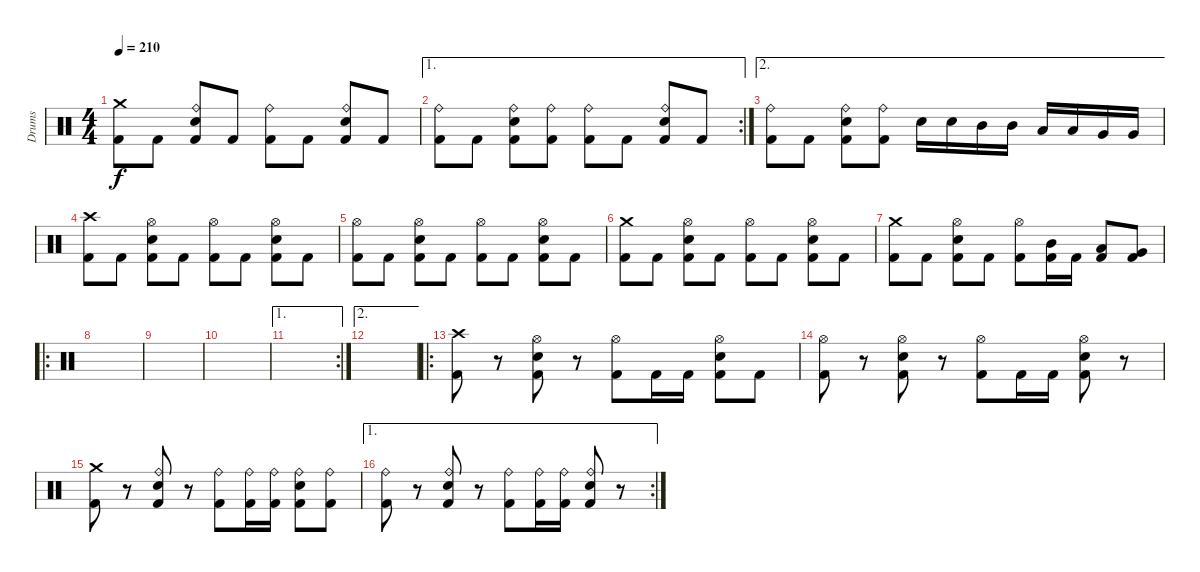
\track ("Drums" "Drums") {instrument percussion}
\staff {score}
\articulation defaults
\ts (4 4)
\tempo 210
\clef neutral
\ks c
("Crash medium (hit)" "Kick (hit) 2").8{dy f} "Kick (hit) 2".8 ("Ride (bell)" "Snare (hit) 2" "Kick (hit) 2").8 "Kick (hit) 2".8 ("Ride (bell)" "Kick (hit) 2").8 "Kick (hit) 2".8 ("Ride (bell)" "Snare (hit) 2" "Kick (hit) 2").8 "Kick (hit) 2".8 |
\ae 1
\rc 2
("Ride (bell)" "Kick (hit) 2").8 "Kick (hit) 2".8 ("Ride (bell)" "Snare (hit) 2" "Kick (hit) 2").8 ("Ride (bell)" "Kick (hit) 2").8 ("Ride (bell)" "Kick (hit) 2").8 "Kick (hit) 2".8 ("Ride (bell)" "Snare (hit) 2" "Kick (hit) 2").8 "Kick (hit) 2".8 |
\ae 2
("Ride (bell)" "Kick (hit) 2").8 "Kick (hit) 2".8 ("Ride (bell)" "Snare (hit) 2" "Kick (hit) 2").8 ("Ride (bell)" "Kick (hit) 2").8 "Snare (hit) 2".16 "Snare (hit) 2".16 "Mid Tom (hit)".16 "Mid Tom (hit)".16 "Low Tom (hit)".16 "Low Tom (hit)".16 "Very Low Tom (hit)".16 "Very Low Tom (hit)".16 |
("Crash high (hit)" "Kick (hit) 2").8 "Kick (hit) 2".8 ("Hi-Hat (open)" "Snare (hit) 2" "Kick (hit) 2").8 "Kick (hit) 2".8 ("Hi-Hat (open)" "Kick (hit) 2").8 "Kick (hit) 2".8 ("Hi-Hat (open)" "Snare (hit) 2" "Kick (hit) 2").8 "Kick (hit) 2".8 |
("Hi-Hat (open)" "Kick (hit) 2").8 "Kick (hit) 2".8 ("Hi-Hat (open)" "Snare (hit) 2" "Kick (hit) 2").8 "Kick (hit) 2".8 ("Hi-Hat (open)" "Kick (hit) 2").8 "Kick (hit) 2".8 ("Hi-Hat (open)" "Snare (hit) 2" "Kick (hit) 2").8 "Kick (hit) 2".8 |
("Crash medium (hit)" "Kick (hit) 2").8 "Kick (hit) 2".8 ("Hi-Hat (open)" "Snare (hit) 2" "Kick (hit) 2").8 "Kick (hit) 2".8 ("Hi-Hat (open)" "Kick (hit) 2").8 "Kick (hit) 2".8 ("Hi-Hat (open)" "Snare (hit) 2" "Kick (hit) 2").8 "Kick (hit) 2".8 |
("Crash medium (hit)" "Kick (hit) 2").8 "Kick (hit) 2".8 ("Hi-Hat (open)" "Snare (hit) 2" "Kick (hit) 2").8 "Kick (hit) 2".8 ("Hi-Hat (open)" "Kick (hit) 2").8 ("Mid Tom (hit)" "Kick (hit) 2").16 "Kick (hit) 2".16 ("Low Tom (hit)" "Kick (hit) 2").8 ("Very Low Tom (hit)" "Kick (hit) 2").8 |
\ro
|
|
|
\ae 1
\rc 2
|
\ae 2
|
\ro
("Crash high (hit)" "Kick (hit) 2").8 r.8 ("Hi-Hat (open)" "Snare (hit) 2" "Kick (hit) 2").8 r.8 ("Hi-Hat (open)" "Kick (hit) 2").8 "Kick (hit) 2".16 "Kick (hit) 2".16 ("Hi-Hat (open)" "Snare (hit) 2" "Kick (hit) 2").8 "Kick (hit) 2".8 |
("Hi-Hat (open)" "Kick (hit) 2").8 r.8 ("Hi-Hat (open)" "Snare (hit) 2" "Kick (hit) 2").8 r.8 ("Hi-Hat (open)" "Kick (hit) 2").8 "Kick (hit) 2".16 "Kick (hit) 2".16 ("Hi-Hat (open)" "Snare (hit) 2" "Kick (hit) 2").8 r.8 |
("Crash medium (hit)" "Kick (hit) 2").8 r.8 ("Ride (bell)" "Snare (hit) 2" "Kick (hit) 2").8 r.8 ("Ride (bell)" "Kick (hit) 2").8 ("Ride (bell)" "Kick (hit) 2").16 ("Ride (bell)" "Kick (hit) 2").16 ("Ride (bell)" "Snare (hit) 2" "Kick (hit) 2").8 ("Ride (bell)" "Kick (hit) 2").8 |
\ae 1
\rc 2
("Ride (bell)" "Kick (hit) 2").8 r.8 ("Ride (bell)" "Snare (hit) 2" "Kick (hit) 2").8 r.8 ("Ride (bell)" "Kick (hit) 2").8 ("Ride (bell)" "Kick (hit) 2").16 ("Ride (bell)" "Kick (hit) 2").16 ("Ride (bell)" "Snare (hit) 2" "Kick (hit) 2").8 r.8
